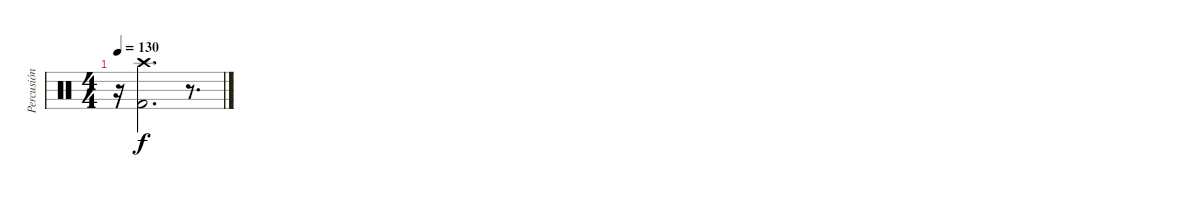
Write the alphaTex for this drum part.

\track ("Percusión (opcional)" "Percusión ") {mute instrument percussion}
\staff {score}
\articulation defaults
\ts (4 4)
\tempo 130
\clef neutral
\ks c
r.16{dy f} ("Crash high (hit)" "Kick (hit) 2").2{d} r.8{d}
